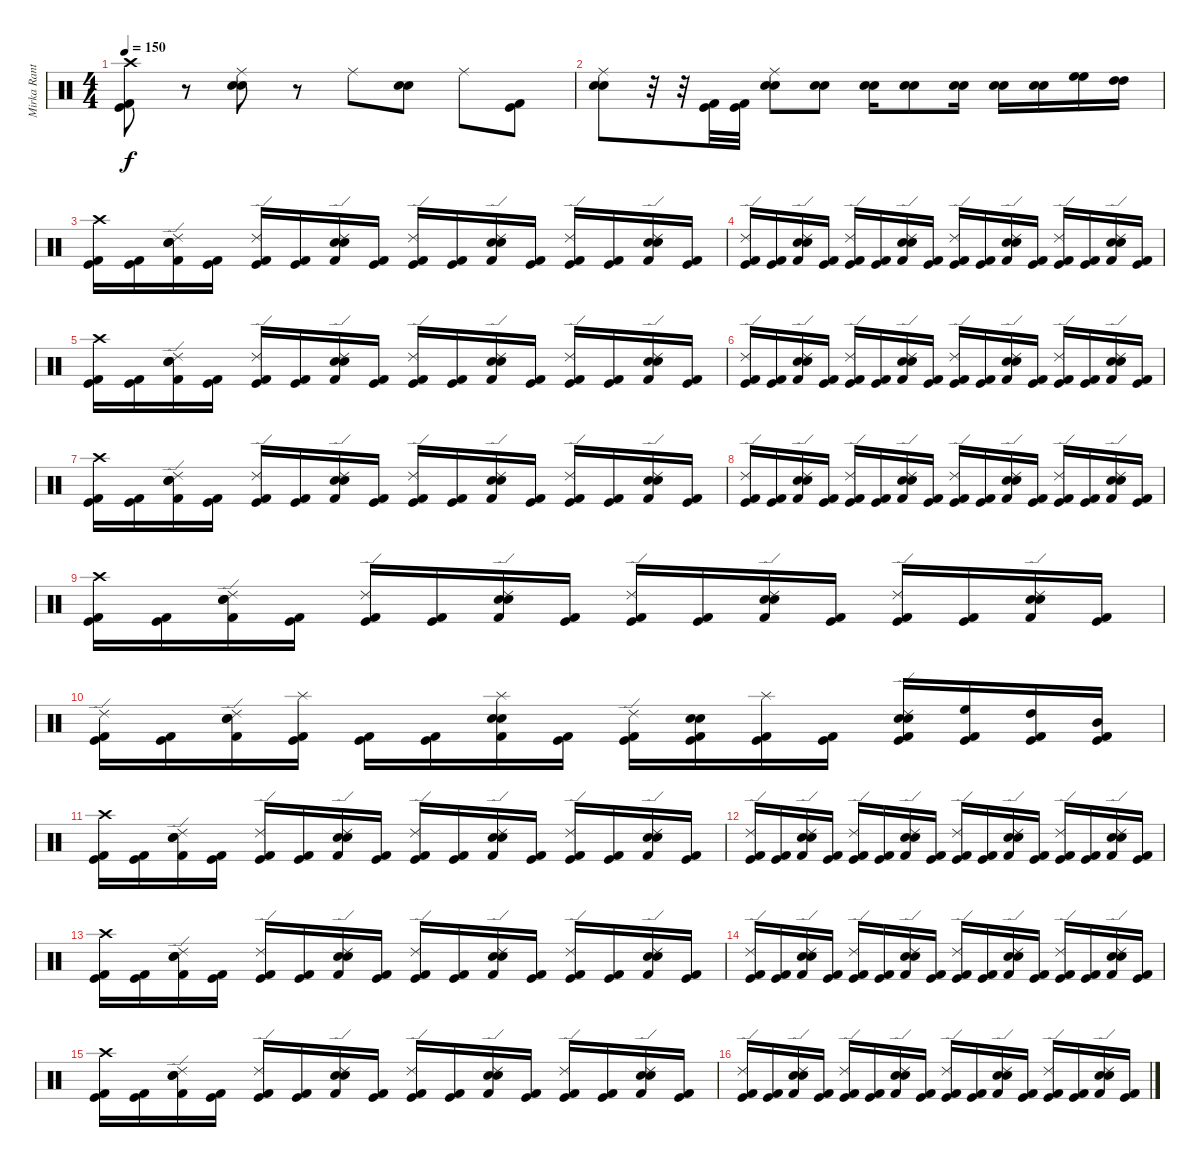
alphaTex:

\track ("Mirka Rantanen" "Mirka Rant") {instrument percussion}
\staff {score}
\articulation defaults
\ts (4 4)
\tempo 150
\clef neutral
\ks c
("Crash high (hit)" "Kick (hit)" "Kick (hit) 2").8{dy f} r.8 ("Ride (middle)" "Electric Snare (hit)" "Snare (hit) 2").8 r.8 "Ride (middle)".8 ("Electric Snare (hit)" "Snare (hit) 2").8 "Ride (middle)".8 ("Kick (hit)" "Kick (hit) 2").8 |
("Ride (middle)" "Electric Snare (hit)" "Snare (hit) 2").8 r.32 r.32 ("Kick (hit)" "Kick (hit) 2").32 ("Kick (hit)" "Kick (hit) 2").32 ("Ride (middle)" "Electric Snare (hit)" "Snare (hit) 2").8 ("Electric Snare (hit)" "Snare (hit) 2").8 ("Electric Snare (hit)" "Snare (hit) 2").16 ("Electric Snare (hit)" "Snare (hit) 2").8 ("Electric Snare (hit)" "Snare (hit) 2").16 ("Electric Snare (hit)" "Snare (hit) 2").16 ("Electric Snare (hit)" "Snare (hit) 2").16 ("High Floor Tom (hit)" "High Floor Tom (hit)").16 ("High Tom (hit)" "High Tom (hit)").16 |
("Crash high (hit)" "Kick (hit)" "Kick (hit) 2").16 ("Kick (hit)" "Kick (hit) 2").16 ("Ride (edge) 2" "Kick (hit) 2" "Electric Snare (hit)" "Snare (hit) 2").16 ("Kick (hit)" "Kick (hit) 2").16 ("Ride (edge) 2" "Kick (hit)" "Kick (hit) 2").16 ("Kick (hit)" "Kick (hit) 2").16 ("Ride (edge) 2" "Kick (hit) 2" "Electric Snare (hit)" "Snare (hit) 2").16 ("Kick (hit)" "Kick (hit) 2").16 ("Ride (edge) 2" "Kick (hit)" "Kick (hit) 2").16 ("Kick (hit)" "Kick (hit) 2").16 ("Ride (edge) 2" "Kick (hit) 2" "Electric Snare (hit)" "Snare (hit) 2").16 ("Kick (hit)" "Kick (hit) 2").16 ("Ride (edge) 2" "Kick (hit)" "Kick (hit) 2").16 ("Kick (hit)" "Kick (hit) 2").16 ("Ride (edge) 2" "Kick (hit) 2" "Electric Snare (hit)" "Snare (hit) 2").16 ("Kick (hit)" "Kick (hit) 2").16 |
("Ride (edge) 2" "Kick (hit)" "Kick (hit) 2").16 ("Kick (hit)" "Kick (hit) 2").16 ("Ride (edge) 2" "Kick (hit) 2" "Electric Snare (hit)" "Snare (hit) 2").16 ("Kick (hit)" "Kick (hit) 2").16 ("Ride (edge) 2" "Kick (hit)" "Kick (hit) 2").16 ("Kick (hit)" "Kick (hit) 2").16 ("Ride (edge) 2" "Kick (hit) 2" "Electric Snare (hit)" "Snare (hit) 2").16 ("Kick (hit)" "Kick (hit) 2").16 ("Ride (edge) 2" "Kick (hit)" "Kick (hit) 2").16 ("Kick (hit)" "Kick (hit) 2").16 ("Ride (edge) 2" "Kick (hit) 2" "Electric Snare (hit)" "Snare (hit) 2").16 ("Kick (hit)" "Kick (hit) 2").16 ("Ride (edge) 2" "Kick (hit)" "Kick (hit) 2").16 ("Kick (hit)" "Kick (hit) 2").16 ("Ride (edge) 2" "Kick (hit) 2" "Electric Snare (hit)" "Snare (hit) 2").16 ("Kick (hit)" "Kick (hit) 2").16 |
("Crash high (hit)" "Kick (hit)" "Kick (hit) 2").16 ("Kick (hit)" "Kick (hit) 2").16 ("Ride (edge) 2" "Kick (hit) 2" "Electric Snare (hit)" "Snare (hit) 2").16 ("Kick (hit)" "Kick (hit) 2").16 ("Ride (edge) 2" "Kick (hit)" "Kick (hit) 2").16 ("Kick (hit)" "Kick (hit) 2").16 ("Ride (edge) 2" "Kick (hit) 2" "Electric Snare (hit)" "Snare (hit) 2").16 ("Kick (hit)" "Kick (hit) 2").16 ("Ride (edge) 2" "Kick (hit)" "Kick (hit) 2").16 ("Kick (hit)" "Kick (hit) 2").16 ("Ride (edge) 2" "Kick (hit) 2" "Electric Snare (hit)" "Snare (hit) 2").16 ("Kick (hit)" "Kick (hit) 2").16 ("Ride (edge) 2" "Kick (hit)" "Kick (hit) 2").16 ("Kick (hit)" "Kick (hit) 2").16 ("Ride (edge) 2" "Kick (hit) 2" "Electric Snare (hit)" "Snare (hit) 2").16 ("Kick (hit)" "Kick (hit) 2").16 |
("Ride (edge) 2" "Kick (hit)" "Kick (hit) 2").16 ("Kick (hit)" "Kick (hit) 2").16 ("Ride (edge) 2" "Kick (hit) 2" "Electric Snare (hit)" "Snare (hit) 2").16 ("Kick (hit)" "Kick (hit) 2").16 ("Ride (edge) 2" "Kick (hit)" "Kick (hit) 2").16 ("Kick (hit)" "Kick (hit) 2").16 ("Ride (edge) 2" "Kick (hit) 2" "Electric Snare (hit)" "Snare (hit) 2").16 ("Kick (hit)" "Kick (hit) 2").16 ("Ride (edge) 2" "Kick (hit)" "Kick (hit) 2").16 ("Kick (hit)" "Kick (hit) 2").16 ("Ride (edge) 2" "Kick (hit) 2" "Electric Snare (hit)" "Snare (hit) 2").16 ("Kick (hit)" "Kick (hit) 2").16 ("Ride (edge) 2" "Kick (hit)" "Kick (hit) 2").16 ("Kick (hit)" "Kick (hit) 2").16 ("Ride (edge) 2" "Kick (hit) 2" "Electric Snare (hit)" "Snare (hit) 2").16 ("Kick (hit)" "Kick (hit) 2").16 |
("Crash high (hit)" "Kick (hit)" "Kick (hit) 2").16 ("Kick (hit)" "Kick (hit) 2").16 ("Ride (edge) 2" "Kick (hit) 2" "Electric Snare (hit)" "Snare (hit) 2").16 ("Kick (hit)" "Kick (hit) 2").16 ("Ride (edge) 2" "Kick (hit)" "Kick (hit) 2").16 ("Kick (hit)" "Kick (hit) 2").16 ("Ride (edge) 2" "Kick (hit) 2" "Electric Snare (hit)" "Snare (hit) 2").16 ("Kick (hit)" "Kick (hit) 2").16 ("Ride (edge) 2" "Kick (hit)" "Kick (hit) 2").16 ("Kick (hit)" "Kick (hit) 2").16 ("Ride (edge) 2" "Kick (hit) 2" "Electric Snare (hit)" "Snare (hit) 2").16 ("Kick (hit)" "Kick (hit) 2").16 ("Ride (edge) 2" "Kick (hit)" "Kick (hit) 2").16 ("Kick (hit)" "Kick (hit) 2").16 ("Ride (edge) 2" "Kick (hit) 2" "Electric Snare (hit)" "Snare (hit) 2").16 ("Kick (hit)" "Kick (hit) 2").16 |
("Ride (edge) 2" "Kick (hit)" "Kick (hit) 2").16 ("Kick (hit)" "Kick (hit) 2").16 ("Ride (edge) 2" "Kick (hit) 2" "Electric Snare (hit)" "Snare (hit) 2").16 ("Kick (hit)" "Kick (hit) 2").16 ("Ride (edge) 2" "Kick (hit)" "Kick (hit) 2").16 ("Kick (hit)" "Kick (hit) 2").16 ("Ride (edge) 2" "Kick (hit) 2" "Electric Snare (hit)" "Snare (hit) 2").16 ("Kick (hit)" "Kick (hit) 2").16 ("Ride (edge) 2" "Kick (hit)" "Kick (hit) 2").16 ("Kick (hit)" "Kick (hit) 2").16 ("Ride (edge) 2" "Kick (hit) 2" "Electric Snare (hit)" "Snare (hit) 2").16 ("Kick (hit)" "Kick (hit) 2").16 ("Ride (edge) 2" "Kick (hit)" "Kick (hit) 2").16 ("Kick (hit)" "Kick (hit) 2").16 ("Ride (edge) 2" "Kick (hit) 2" "Electric Snare (hit)" "Snare (hit) 2").16 ("Kick (hit)" "Kick (hit) 2").16 |
("Crash high (hit)" "Kick (hit)" "Kick (hit) 2").16 ("Kick (hit)" "Kick (hit) 2").16 ("Ride (edge) 2" "Kick (hit) 2" "Electric Snare (hit)" "Snare (hit) 2").16 ("Kick (hit)" "Kick (hit) 2").16 ("Ride (edge) 2" "Kick (hit)" "Kick (hit) 2").16 ("Kick (hit)" "Kick (hit) 2").16 ("Ride (edge) 2" "Kick (hit) 2" "Electric Snare (hit)" "Snare (hit) 2").16 ("Kick (hit)" "Kick (hit) 2").16 ("Ride (edge) 2" "Kick (hit)" "Kick (hit) 2").16 ("Kick (hit)" "Kick (hit) 2").16 ("Ride (edge) 2" "Kick (hit) 2" "Electric Snare (hit)" "Snare (hit) 2").16 ("Kick (hit)" "Kick (hit) 2").16 ("Ride (edge) 2" "Kick (hit)" "Kick (hit) 2").16 ("Kick (hit)" "Kick (hit) 2").16 ("Ride (edge) 2" "Kick (hit) 2" "Electric Snare (hit)" "Snare (hit) 2").16 ("Kick (hit)" "Kick (hit) 2").16 |
("Ride (edge) 2" "Kick (hit)" "Kick (hit) 2").16 ("Kick (hit)" "Kick (hit) 2").16 ("Ride (edge) 2" "Kick (hit) 2" "Electric Snare (hit)" "Snare (hit) 2").16 ("Splash (hit)" "Kick (hit)" "Kick (hit) 2").16 ("Kick (hit)" "Kick (hit) 2").16 ("Kick (hit)" "Kick (hit) 2").16 ("Splash (hit)" "Kick (hit) 2" "Electric Snare (hit)" "Snare (hit) 2").16 ("Kick (hit)" "Kick (hit) 2").16 ("Ride (edge) 2" "Kick (hit)" "Kick (hit) 2").16 ("Kick (hit)" "Kick (hit) 2" "Electric Snare (hit)" "Snare (hit) 2").16 ("Splash (hit)" "Kick (hit)" "Kick (hit) 2").16 ("Kick (hit)" "Kick (hit) 2").16 ("Ride (edge) 2" "Kick (hit)" "Kick (hit) 2" "Electric Snare (hit)" "Snare (hit) 2").16 ("High Floor Tom (hit)" "Kick (hit)" "Kick (hit) 2").16 ("High Tom (hit)" "Kick (hit)" "Kick (hit) 2").16 ("Mid Tom (hit)" "Kick (hit)" "Kick (hit) 2").16 |
("Crash high (hit)" "Kick (hit)" "Kick (hit) 2").16 ("Kick (hit)" "Kick (hit) 2").16 ("Ride (edge) 2" "Kick (hit) 2" "Electric Snare (hit)" "Snare (hit) 2").16 ("Kick (hit)" "Kick (hit) 2").16 ("Ride (edge) 2" "Kick (hit)" "Kick (hit) 2").16 ("Kick (hit)" "Kick (hit) 2").16 ("Ride (edge) 2" "Kick (hit) 2" "Electric Snare (hit)" "Snare (hit) 2").16 ("Kick (hit)" "Kick (hit) 2").16 ("Ride (edge) 2" "Kick (hit)" "Kick (hit) 2").16 ("Kick (hit)" "Kick (hit) 2").16 ("Ride (edge) 2" "Kick (hit) 2" "Electric Snare (hit)" "Snare (hit) 2").16 ("Kick (hit)" "Kick (hit) 2").16 ("Ride (edge) 2" "Kick (hit)" "Kick (hit) 2").16 ("Kick (hit)" "Kick (hit) 2").16 ("Ride (edge) 2" "Kick (hit) 2" "Electric Snare (hit)" "Snare (hit) 2").16 ("Kick (hit)" "Kick (hit) 2").16 |
("Ride (edge) 2" "Kick (hit)" "Kick (hit) 2").16 ("Kick (hit)" "Kick (hit) 2").16 ("Ride (edge) 2" "Kick (hit) 2" "Electric Snare (hit)" "Snare (hit) 2").16 ("Kick (hit)" "Kick (hit) 2").16 ("Ride (edge) 2" "Kick (hit)" "Kick (hit) 2").16 ("Kick (hit)" "Kick (hit) 2").16 ("Ride (edge) 2" "Kick (hit) 2" "Electric Snare (hit)" "Snare (hit) 2").16 ("Kick (hit)" "Kick (hit) 2").16 ("Ride (edge) 2" "Kick (hit)" "Kick (hit) 2").16 ("Kick (hit)" "Kick (hit) 2").16 ("Ride (edge) 2" "Kick (hit) 2" "Electric Snare (hit)" "Snare (hit) 2").16 ("Kick (hit)" "Kick (hit) 2").16 ("Ride (edge) 2" "Kick (hit)" "Kick (hit) 2").16 ("Kick (hit)" "Kick (hit) 2").16 ("Ride (edge) 2" "Kick (hit) 2" "Electric Snare (hit)" "Snare (hit) 2").16 ("Kick (hit)" "Kick (hit) 2").16 |
("Crash high (hit)" "Kick (hit)" "Kick (hit) 2").16 ("Kick (hit)" "Kick (hit) 2").16 ("Ride (edge) 2" "Kick (hit) 2" "Electric Snare (hit)" "Snare (hit) 2").16 ("Kick (hit)" "Kick (hit) 2").16 ("Ride (edge) 2" "Kick (hit)" "Kick (hit) 2").16 ("Kick (hit)" "Kick (hit) 2").16 ("Ride (edge) 2" "Kick (hit) 2" "Electric Snare (hit)" "Snare (hit) 2").16 ("Kick (hit)" "Kick (hit) 2").16 ("Ride (edge) 2" "Kick (hit)" "Kick (hit) 2").16 ("Kick (hit)" "Kick (hit) 2").16 ("Ride (edge) 2" "Kick (hit) 2" "Electric Snare (hit)" "Snare (hit) 2").16 ("Kick (hit)" "Kick (hit) 2").16 ("Ride (edge) 2" "Kick (hit)" "Kick (hit) 2").16 ("Kick (hit)" "Kick (hit) 2").16 ("Ride (edge) 2" "Kick (hit) 2" "Electric Snare (hit)" "Snare (hit) 2").16 ("Kick (hit)" "Kick (hit) 2").16 |
("Ride (edge) 2" "Kick (hit)" "Kick (hit) 2").16 ("Kick (hit)" "Kick (hit) 2").16 ("Ride (edge) 2" "Kick (hit) 2" "Electric Snare (hit)" "Snare (hit) 2").16 ("Kick (hit)" "Kick (hit) 2").16 ("Ride (edge) 2" "Kick (hit)" "Kick (hit) 2").16 ("Kick (hit)" "Kick (hit) 2").16 ("Ride (edge) 2" "Kick (hit) 2" "Electric Snare (hit)" "Snare (hit) 2").16 ("Kick (hit)" "Kick (hit) 2").16 ("Ride (edge) 2" "Kick (hit)" "Kick (hit) 2").16 ("Kick (hit)" "Kick (hit) 2").16 ("Ride (edge) 2" "Kick (hit) 2" "Electric Snare (hit)" "Snare (hit) 2").16 ("Kick (hit)" "Kick (hit) 2").16 ("Ride (edge) 2" "Kick (hit)" "Kick (hit) 2").16 ("Kick (hit)" "Kick (hit) 2").16 ("Ride (edge) 2" "Kick (hit) 2" "Electric Snare (hit)" "Snare (hit) 2").16 ("Kick (hit)" "Kick (hit) 2").16 |
("Crash high (hit)" "Kick (hit)" "Kick (hit) 2").16 ("Kick (hit)" "Kick (hit) 2").16 ("Ride (edge) 2" "Kick (hit) 2" "Electric Snare (hit)" "Snare (hit) 2").16 ("Kick (hit)" "Kick (hit) 2").16 ("Ride (edge) 2" "Kick (hit)" "Kick (hit) 2").16 ("Kick (hit)" "Kick (hit) 2").16 ("Ride (edge) 2" "Kick (hit) 2" "Electric Snare (hit)" "Snare (hit) 2").16 ("Kick (hit)" "Kick (hit) 2").16 ("Ride (edge) 2" "Kick (hit)" "Kick (hit) 2").16 ("Kick (hit)" "Kick (hit) 2").16 ("Ride (edge) 2" "Kick (hit) 2" "Electric Snare (hit)" "Snare (hit) 2").16 ("Kick (hit)" "Kick (hit) 2").16 ("Ride (edge) 2" "Kick (hit)" "Kick (hit) 2").16 ("Kick (hit)" "Kick (hit) 2").16 ("Ride (edge) 2" "Kick (hit) 2" "Electric Snare (hit)" "Snare (hit) 2").16 ("Kick (hit)" "Kick (hit) 2").16 |
("Ride (edge) 2" "Kick (hit)" "Kick (hit) 2").16 ("Kick (hit)" "Kick (hit) 2").16 ("Ride (edge) 2" "Kick (hit) 2" "Electric Snare (hit)" "Snare (hit) 2").16 ("Kick (hit)" "Kick (hit) 2").16 ("Ride (edge) 2" "Kick (hit)" "Kick (hit) 2").16 ("Kick (hit)" "Kick (hit) 2").16 ("Ride (edge) 2" "Kick (hit) 2" "Electric Snare (hit)" "Snare (hit) 2").16 ("Kick (hit)" "Kick (hit) 2").16 ("Ride (edge) 2" "Kick (hit)" "Kick (hit) 2").16 ("Kick (hit)" "Kick (hit) 2").16 ("Ride (edge) 2" "Kick (hit) 2" "Electric Snare (hit)" "Snare (hit) 2").16 ("Kick (hit)" "Kick (hit) 2").16 ("Ride (edge) 2" "Kick (hit)" "Kick (hit) 2").16 ("Kick (hit)" "Kick (hit) 2").16 ("Ride (edge) 2" "Kick (hit) 2" "Electric Snare (hit)" "Snare (hit) 2").16 ("Kick (hit)" "Kick (hit) 2").16
